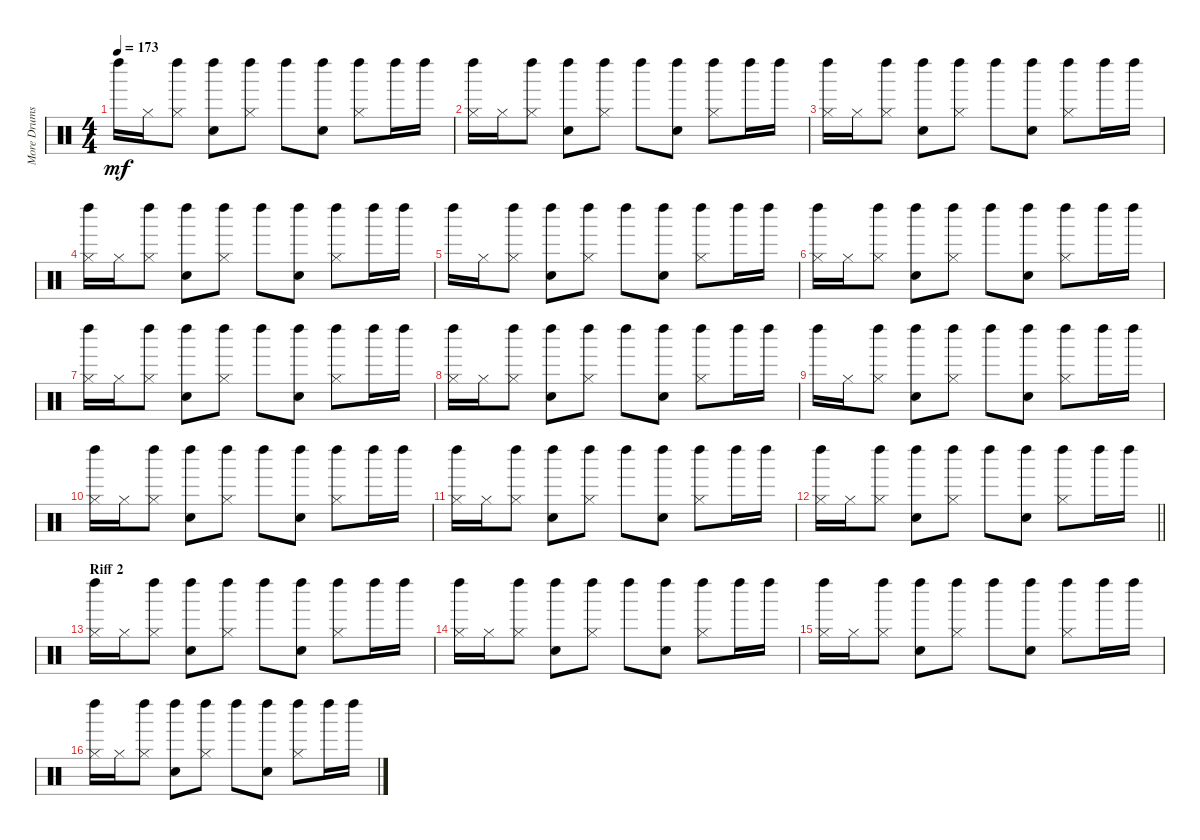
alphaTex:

\track ("More Drums" "More Drums") {instrument percussion}
\staff {score}
\articulation defaults
\ts (4 4)
\tempo 173
\clef neutral
\ks c "Left Maraca (hit)".16{dy mf} "Hi-Hat (closed)".16
("Hi-Hat (closed)" "Left Maraca (hit)").8 ("Snare (hit) 2" "Left Maraca (hit)").8 ("Hi-Hat (closed)" "Left Maraca (hit)").8 "Left Maraca (hit)".8 ("Snare (hit) 2" "Left Maraca (hit)").8 ("Hi-Hat (closed)" "Left Maraca (hit)").8 "Left Maraca (hit)".16 "Left Maraca (hit)".16 |
("Hi-Hat (closed)" "Left Maraca (hit)").16 "Hi-Hat (closed)".16 ("Hi-Hat (closed)" "Left Maraca (hit)").8 ("Snare (hit) 2" "Left Maraca (hit)").8 ("Hi-Hat (closed)" "Left Maraca (hit)").8 "Left Maraca (hit)".8 ("Snare (hit) 2" "Left Maraca (hit)").8 ("Hi-Hat (closed)" "Left Maraca (hit)").8 "Left Maraca (hit)".16 "Left Maraca (hit)".16 |
("Hi-Hat (closed)" "Left Maraca (hit)").16 "Hi-Hat (closed)".16 ("Hi-Hat (closed)" "Left Maraca (hit)").8 ("Snare (hit) 2" "Left Maraca (hit)").8 ("Hi-Hat (closed)" "Left Maraca (hit)").8 "Left Maraca (hit)".8 ("Snare (hit) 2" "Left Maraca (hit)").8 ("Hi-Hat (closed)" "Left Maraca (hit)").8 "Left Maraca (hit)".16 "Left Maraca (hit)".16 |
("Hi-Hat (closed)" "Left Maraca (hit)").16 "Hi-Hat (closed)".16 ("Hi-Hat (closed)" "Left Maraca (hit)").8 ("Snare (hit) 2" "Left Maraca (hit)").8 ("Hi-Hat (closed)" "Left Maraca (hit)").8 "Left Maraca (hit)".8 ("Snare (hit) 2" "Left Maraca (hit)").8 ("Hi-Hat (closed)" "Left Maraca (hit)").8 "Left Maraca (hit)".16 "Left Maraca (hit)".16 |
"Left Maraca (hit)".16 "Hi-Hat (closed)".16 ("Hi-Hat (closed)" "Left Maraca (hit)").8 ("Snare (hit) 2" "Left Maraca (hit)").8 ("Hi-Hat (closed)" "Left Maraca (hit)").8 "Left Maraca (hit)".8 ("Snare (hit) 2" "Left Maraca (hit)").8 ("Hi-Hat (closed)" "Left Maraca (hit)").8 "Left Maraca (hit)".16 "Left Maraca (hit)".16 |
("Hi-Hat (closed)" "Left Maraca (hit)").16 "Hi-Hat (closed)".16 ("Hi-Hat (closed)" "Left Maraca (hit)").8 ("Snare (hit) 2" "Left Maraca (hit)").8 ("Hi-Hat (closed)" "Left Maraca (hit)").8 "Left Maraca (hit)".8 ("Snare (hit) 2" "Left Maraca (hit)").8 ("Hi-Hat (closed)" "Left Maraca (hit)").8 "Left Maraca (hit)".16 "Left Maraca (hit)".16 |
("Hi-Hat (closed)" "Left Maraca (hit)").16 "Hi-Hat (closed)".16 ("Hi-Hat (closed)" "Left Maraca (hit)").8 ("Snare (hit) 2" "Left Maraca (hit)").8 ("Hi-Hat (closed)" "Left Maraca (hit)").8 "Left Maraca (hit)".8 ("Snare (hit) 2" "Left Maraca (hit)").8 ("Hi-Hat (closed)" "Left Maraca (hit)").8 "Left Maraca (hit)".16 "Left Maraca (hit)".16 |
("Hi-Hat (closed)" "Left Maraca (hit)").16 "Hi-Hat (closed)".16 ("Hi-Hat (closed)" "Left Maraca (hit)").8 ("Snare (hit) 2" "Left Maraca (hit)").8 ("Hi-Hat (closed)" "Left Maraca (hit)").8 "Left Maraca (hit)".8 ("Snare (hit) 2" "Left Maraca (hit)").8 ("Hi-Hat (closed)" "Left Maraca (hit)").8 "Left Maraca (hit)".16 "Left Maraca (hit)".16 |
"Left Maraca (hit)".16 "Hi-Hat (closed)".16 ("Hi-Hat (closed)" "Left Maraca (hit)").8 ("Snare (hit) 2" "Left Maraca (hit)").8 ("Hi-Hat (closed)" "Left Maraca (hit)").8 "Left Maraca (hit)".8 ("Snare (hit) 2" "Left Maraca (hit)").8 ("Hi-Hat (closed)" "Left Maraca (hit)").8 "Left Maraca (hit)".16 "Left Maraca (hit)".16 |
("Hi-Hat (closed)" "Left Maraca (hit)").16 "Hi-Hat (closed)".16 ("Hi-Hat (closed)" "Left Maraca (hit)").8 ("Snare (hit) 2" "Left Maraca (hit)").8 ("Hi-Hat (closed)" "Left Maraca (hit)").8 "Left Maraca (hit)".8 ("Snare (hit) 2" "Left Maraca (hit)").8 ("Hi-Hat (closed)" "Left Maraca (hit)").8 "Left Maraca (hit)".16 "Left Maraca (hit)".16 |
("Hi-Hat (closed)" "Left Maraca (hit)").16 "Hi-Hat (closed)".16 ("Hi-Hat (closed)" "Left Maraca (hit)").8 ("Snare (hit) 2" "Left Maraca (hit)").8 ("Hi-Hat (closed)" "Left Maraca (hit)").8 "Left Maraca (hit)".8 ("Snare (hit) 2" "Left Maraca (hit)").8 ("Hi-Hat (closed)" "Left Maraca (hit)").8 "Left Maraca (hit)".16 "Left Maraca (hit)".16 |
\barLineRight lightlight
("Hi-Hat (closed)" "Left Maraca (hit)").16 "Hi-Hat (closed)".16 ("Hi-Hat (closed)" "Left Maraca (hit)").8 ("Snare (hit) 2" "Left Maraca (hit)").8 ("Hi-Hat (closed)" "Left Maraca (hit)").8 "Left Maraca (hit)".8 ("Snare (hit) 2" "Left Maraca (hit)").8 ("Hi-Hat (closed)" "Left Maraca (hit)").8 "Left Maraca (hit)".16 "Left Maraca (hit)".16 |
\section ("" "Riff 2")
("Hi-Hat (closed)" "Left Maraca (hit)").16 "Hi-Hat (closed)".16 ("Hi-Hat (closed)" "Left Maraca (hit)").8 ("Snare (hit) 2" "Left Maraca (hit)").8 ("Hi-Hat (closed)" "Left Maraca (hit)").8 "Left Maraca (hit)".8 ("Snare (hit) 2" "Left Maraca (hit)").8 ("Hi-Hat (closed)" "Left Maraca (hit)").8 "Left Maraca (hit)".16 "Left Maraca (hit)".16 |
("Hi-Hat (closed)" "Left Maraca (hit)").16 "Hi-Hat (closed)".16 ("Hi-Hat (closed)" "Left Maraca (hit)").8 ("Snare (hit) 2" "Left Maraca (hit)").8 ("Hi-Hat (closed)" "Left Maraca (hit)").8 "Left Maraca (hit)".8 ("Snare (hit) 2" "Left Maraca (hit)").8 ("Hi-Hat (closed)" "Left Maraca (hit)").8 "Left Maraca (hit)".16 "Left Maraca (hit)".16 |
("Hi-Hat (closed)" "Left Maraca (hit)").16 "Hi-Hat (closed)".16 ("Hi-Hat (closed)" "Left Maraca (hit)").8 ("Snare (hit) 2" "Left Maraca (hit)").8 ("Hi-Hat (closed)" "Left Maraca (hit)").8 "Left Maraca (hit)".8 ("Snare (hit) 2" "Left Maraca (hit)").8 ("Hi-Hat (closed)" "Left Maraca (hit)").8 "Left Maraca (hit)".16 "Left Maraca (hit)".16 |
("Hi-Hat (closed)" "Left Maraca (hit)").16 "Hi-Hat (closed)".16 ("Hi-Hat (closed)" "Left Maraca (hit)").8 ("Snare (hit) 2" "Left Maraca (hit)").8 ("Hi-Hat (closed)" "Left Maraca (hit)").8 "Left Maraca (hit)".8 ("Snare (hit) 2" "Left Maraca (hit)").8 ("Hi-Hat (closed)" "Left Maraca (hit)").8 "Left Maraca (hit)".16 "Left Maraca (hit)".16
